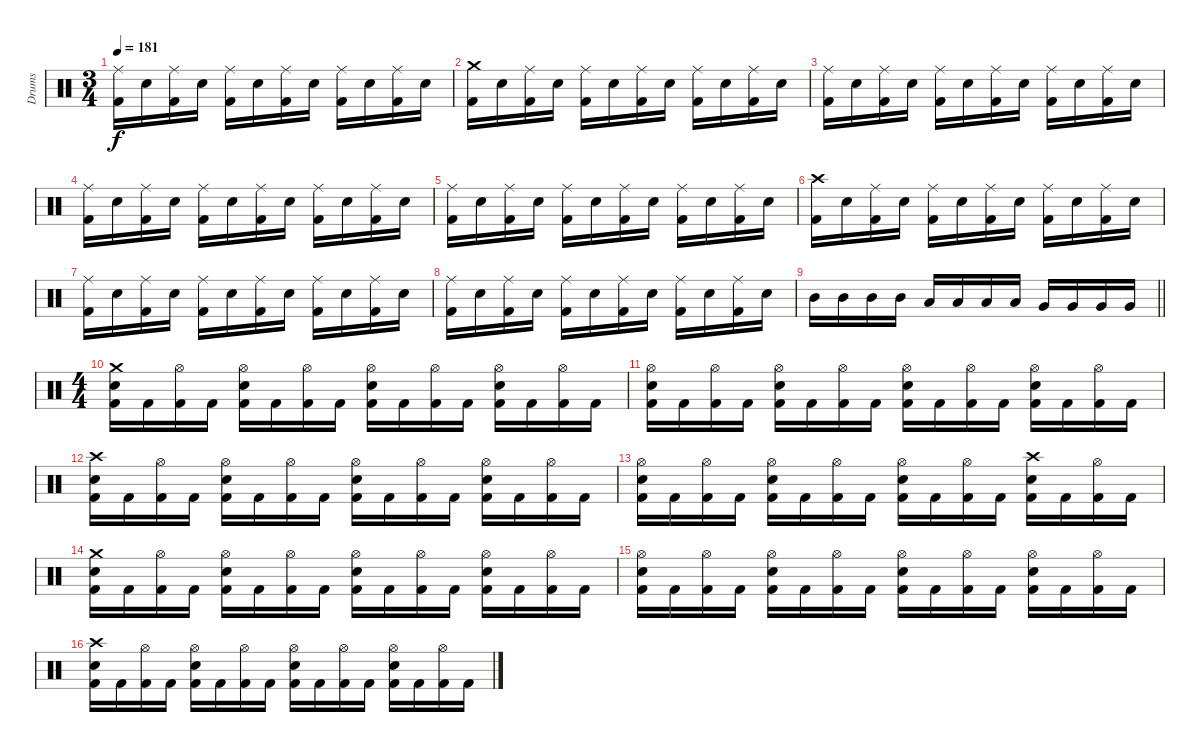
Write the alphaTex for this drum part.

\track ("Drums" "Drums") {instrument percussion}
\staff {score}
\articulation defaults
\ts (3 4)
\tempo 181
\clef neutral
\ks c
("Ride (middle)" "Kick (hit) 2").16{dy f} "Electric Snare (hit)".16 ("Ride (middle)" "Kick (hit) 2").16 "Electric Snare (hit)".16 ("Ride (middle)" "Kick (hit) 2").16 "Electric Snare (hit)".16 ("Ride (middle)" "Kick (hit) 2").16 "Electric Snare (hit)".16 ("Ride (middle)" "Kick (hit) 2").16 "Electric Snare (hit)".16 ("Ride (middle)" "Kick (hit) 2").16 "Electric Snare (hit)".16 |
("Crash medium (hit)" "Kick (hit) 2").16 "Electric Snare (hit)".16 ("Ride (middle)" "Kick (hit) 2").16 "Electric Snare (hit)".16 ("Ride (middle)" "Kick (hit) 2").16 "Electric Snare (hit)".16 ("Ride (middle)" "Kick (hit) 2").16 "Electric Snare (hit)".16 ("Ride (middle)" "Kick (hit) 2").16 "Electric Snare (hit)".16 ("Ride (middle)" "Kick (hit) 2").16 "Electric Snare (hit)".16 |
("Ride (middle)" "Kick (hit) 2").16 "Electric Snare (hit)".16 ("Ride (middle)" "Kick (hit) 2").16 "Electric Snare (hit)".16 ("Ride (middle)" "Kick (hit) 2").16 "Electric Snare (hit)".16 ("Ride (middle)" "Kick (hit) 2").16 "Electric Snare (hit)".16 ("Ride (middle)" "Kick (hit) 2").16 "Electric Snare (hit)".16 ("Ride (middle)" "Kick (hit) 2").16 "Electric Snare (hit)".16 |
("Ride (middle)" "Kick (hit) 2").16 "Electric Snare (hit)".16 ("Ride (middle)" "Kick (hit) 2").16 "Electric Snare (hit)".16 ("Ride (middle)" "Kick (hit) 2").16 "Electric Snare (hit)".16 ("Ride (middle)" "Kick (hit) 2").16 "Electric Snare (hit)".16 ("Ride (middle)" "Kick (hit) 2").16 "Electric Snare (hit)".16 ("Ride (middle)" "Kick (hit) 2").16 "Electric Snare (hit)".16 |
("Ride (middle)" "Kick (hit) 2").16 "Electric Snare (hit)".16 ("Ride (middle)" "Kick (hit) 2").16 "Electric Snare (hit)".16 ("Ride (middle)" "Kick (hit) 2").16 "Electric Snare (hit)".16 ("Ride (middle)" "Kick (hit) 2").16 "Electric Snare (hit)".16 ("Ride (middle)" "Kick (hit) 2").16 "Electric Snare (hit)".16 ("Ride (middle)" "Kick (hit) 2").16 "Electric Snare (hit)".16 |
("Crash high (hit)" "Kick (hit) 2").16 "Electric Snare (hit)".16 ("Ride (middle)" "Kick (hit) 2").16 "Electric Snare (hit)".16 ("Ride (middle)" "Kick (hit) 2").16 "Electric Snare (hit)".16 ("Ride (middle)" "Kick (hit) 2").16 "Electric Snare (hit)".16 ("Ride (middle)" "Kick (hit) 2").16 "Electric Snare (hit)".16 ("Ride (middle)" "Kick (hit) 2").16 "Electric Snare (hit)".16 |
("Ride (middle)" "Kick (hit) 2").16 "Electric Snare (hit)".16 ("Ride (middle)" "Kick (hit) 2").16 "Electric Snare (hit)".16 ("Ride (middle)" "Kick (hit) 2").16 "Electric Snare (hit)".16 ("Ride (middle)" "Kick (hit) 2").16 "Electric Snare (hit)".16 ("Ride (middle)" "Kick (hit) 2").16 "Electric Snare (hit)".16 ("Ride (middle)" "Kick (hit) 2").16 "Electric Snare (hit)".16 |
("Ride (middle)" "Kick (hit) 2").16 "Electric Snare (hit)".16 ("Ride (middle)" "Kick (hit) 2").16 "Electric Snare (hit)".16 ("Ride (middle)" "Kick (hit) 2").16 "Electric Snare (hit)".16 ("Ride (middle)" "Kick (hit) 2").16 "Electric Snare (hit)".16 ("Ride (middle)" "Kick (hit) 2").16 "Electric Snare (hit)".16 ("Ride (middle)" "Kick (hit) 2").16 "Electric Snare (hit)".16 |
\barLineRight lightlight "Mid Tom (hit)".16 "Mid Tom (hit)".16 "Mid Tom (hit)".16 "Mid Tom (hit)".16 "Low Tom (hit)".16 "Low Tom (hit)".16 "Low Tom (hit)".16 "Low Tom (hit)".16 "Very Low Tom (hit)".16 "Very Low Tom (hit)".16 "Very Low Tom (hit)".16 "Very Low Tom (hit)".16
|
\ts (4 4)
("Crash medium (hit)" "Electric Snare (hit)" "Kick (hit) 2").16 "Kick (hit) 2".16 ("Hi-Hat (open)" "Kick (hit) 2").16 "Kick (hit) 2".16 ("Hi-Hat (open)" "Electric Snare (hit)" "Kick (hit) 2").16 "Kick (hit) 2".16 ("Hi-Hat (open)" "Kick (hit) 2").16 "Kick (hit) 2".16 ("Hi-Hat (open)" "Electric Snare (hit)" "Kick (hit) 2").16 "Kick (hit) 2".16 ("Hi-Hat (open)" "Kick (hit) 2").16 "Kick (hit) 2".16 ("Hi-Hat (open)" "Electric Snare (hit)" "Kick (hit) 2").16 "Kick (hit) 2".16 ("Hi-Hat (open)" "Kick (hit) 2").16 "Kick (hit) 2".16 |
("Hi-Hat (open)" "Electric Snare (hit)" "Kick (hit) 2").16 "Kick (hit) 2".16 ("Hi-Hat (open)" "Kick (hit) 2").16 "Kick (hit) 2".16 ("Hi-Hat (open)" "Electric Snare (hit)" "Kick (hit) 2").16 "Kick (hit) 2".16 ("Hi-Hat (open)" "Kick (hit) 2").16 "Kick (hit) 2".16 ("Hi-Hat (open)" "Electric Snare (hit)" "Kick (hit) 2").16 "Kick (hit) 2".16 ("Hi-Hat (open)" "Kick (hit) 2").16 "Kick (hit) 2".16 ("Hi-Hat (open)" "Electric Snare (hit)" "Kick (hit) 2").16 "Kick (hit) 2".16 ("Hi-Hat (open)" "Kick (hit) 2").16 "Kick (hit) 2".16 |
("Crash high (hit)" "Electric Snare (hit)" "Kick (hit) 2").16 "Kick (hit) 2".16 ("Hi-Hat (open)" "Kick (hit) 2").16 "Kick (hit) 2".16 ("Hi-Hat (open)" "Electric Snare (hit)" "Kick (hit) 2").16 "Kick (hit) 2".16 ("Hi-Hat (open)" "Kick (hit) 2").16 "Kick (hit) 2".16 ("Hi-Hat (open)" "Electric Snare (hit)" "Kick (hit) 2").16 "Kick (hit) 2".16 ("Hi-Hat (open)" "Kick (hit) 2").16 "Kick (hit) 2".16 ("Hi-Hat (open)" "Electric Snare (hit)" "Kick (hit) 2").16 "Kick (hit) 2".16 ("Hi-Hat (open)" "Kick (hit) 2").16 "Kick (hit) 2".16 |
("Hi-Hat (open)" "Electric Snare (hit)" "Kick (hit) 2").16 "Kick (hit) 2".16 ("Hi-Hat (open)" "Kick (hit) 2").16 "Kick (hit) 2".16 ("Hi-Hat (open)" "Electric Snare (hit)" "Kick (hit) 2").16 "Kick (hit) 2".16 ("Hi-Hat (open)" "Kick (hit) 2").16 "Kick (hit) 2".16 ("Hi-Hat (open)" "Electric Snare (hit)" "Kick (hit) 2").16 "Kick (hit) 2".16 ("Hi-Hat (open)" "Kick (hit) 2").16 "Kick (hit) 2".16 ("Crash high (hit)" "Electric Snare (hit)" "Kick (hit) 2").16 "Kick (hit) 2".16 ("Hi-Hat (open)" "Kick (hit) 2").16 "Kick (hit) 2".16 |
("Crash medium (hit)" "Electric Snare (hit)" "Kick (hit) 2").16 "Kick (hit) 2".16 ("Hi-Hat (open)" "Kick (hit) 2").16 "Kick (hit) 2".16 ("Hi-Hat (open)" "Electric Snare (hit)" "Kick (hit) 2").16 "Kick (hit) 2".16 ("Hi-Hat (open)" "Kick (hit) 2").16 "Kick (hit) 2".16 ("Hi-Hat (open)" "Electric Snare (hit)" "Kick (hit) 2").16 "Kick (hit) 2".16 ("Hi-Hat (open)" "Kick (hit) 2").16 "Kick (hit) 2".16 ("Hi-Hat (open)" "Electric Snare (hit)" "Kick (hit) 2").16 "Kick (hit) 2".16 ("Hi-Hat (open)" "Kick (hit) 2").16 "Kick (hit) 2".16 |
("Hi-Hat (open)" "Electric Snare (hit)" "Kick (hit) 2").16 "Kick (hit) 2".16 ("Hi-Hat (open)" "Kick (hit) 2").16 "Kick (hit) 2".16 ("Hi-Hat (open)" "Electric Snare (hit)" "Kick (hit) 2").16 "Kick (hit) 2".16 ("Hi-Hat (open)" "Kick (hit) 2").16 "Kick (hit) 2".16 ("Hi-Hat (open)" "Electric Snare (hit)" "Kick (hit) 2").16 "Kick (hit) 2".16 ("Hi-Hat (open)" "Kick (hit) 2").16 "Kick (hit) 2".16 ("Hi-Hat (open)" "Electric Snare (hit)" "Kick (hit) 2").16 "Kick (hit) 2".16 ("Hi-Hat (open)" "Kick (hit) 2").16 "Kick (hit) 2".16 |
("Crash high (hit)" "Electric Snare (hit)" "Kick (hit) 2").16 "Kick (hit) 2".16 ("Hi-Hat (open)" "Kick (hit) 2").16 "Kick (hit) 2".16 ("Hi-Hat (open)" "Electric Snare (hit)" "Kick (hit) 2").16 "Kick (hit) 2".16 ("Hi-Hat (open)" "Kick (hit) 2").16 "Kick (hit) 2".16 ("Hi-Hat (open)" "Electric Snare (hit)" "Kick (hit) 2").16 "Kick (hit) 2".16 ("Hi-Hat (open)" "Kick (hit) 2").16 "Kick (hit) 2".16 ("Hi-Hat (open)" "Electric Snare (hit)" "Kick (hit) 2").16 "Kick (hit) 2".16 ("Hi-Hat (open)" "Kick (hit) 2").16 "Kick (hit) 2".16
